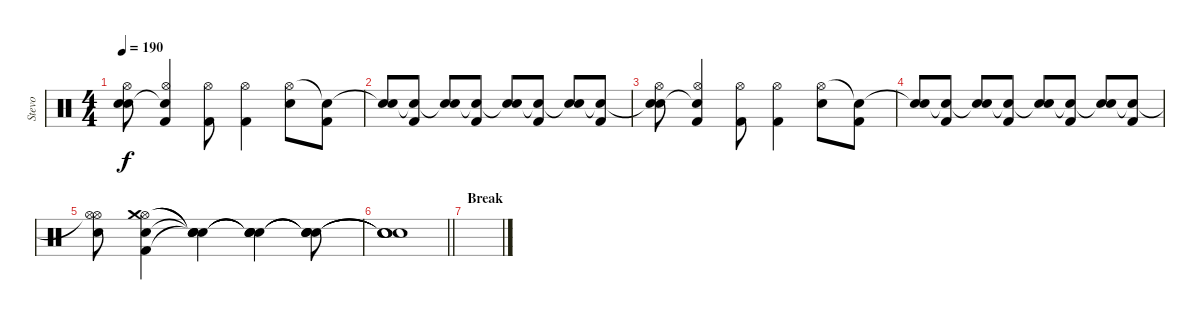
\track ("Stevo" "Stevo") {instrument percussion}
\staff {score}
\articulation defaults
\ts (4 4)
\tempo 190
\clef neutral
\ks c
("Snare (hit)"{t} "Hi-Hat (open)" "Electric Snare (hit)").8{dy f} ("Snare (hit)"{t} "Hi-Hat (open)" "Kick (hit) 2").4 ("Hi-Hat (open)" "Kick (hit) 2").8 ("Hi-Hat (open)" "Kick (hit) 2").4 ("Hi-Hat (open)" "Electric Snare (hit)").8 ("Snare (hit)"{t} "Kick (hit) 2").8 |
("Snare (hit)"{t} "Electric Snare (hit)").8 ("Snare (hit)"{t} "Kick (hit) 2").8 ("Snare (hit)"{t} "Electric Snare (hit)").8 ("Snare (hit)"{t} "Kick (hit) 2").8 ("Snare (hit)"{t} "Electric Snare (hit)").8 ("Snare (hit)"{t} "Kick (hit) 2").8 ("Snare (hit)"{t} "Electric Snare (hit)").8 ("Snare (hit)"{t} "Kick (hit) 2").8 |
("Snare (hit)"{t} "Hi-Hat (open)" "Electric Snare (hit)").8 ("Snare (hit)"{t} "Hi-Hat (open)" "Kick (hit) 2").4 ("Hi-Hat (open)" "Kick (hit) 2").8 ("Hi-Hat (open)" "Kick (hit) 2").4 ("Hi-Hat (open)" "Electric Snare (hit)").8 ("Snare (hit)"{t} "Kick (hit) 2").8 |
("Snare (hit)"{t} "Electric Snare (hit)").8 ("Snare (hit)"{t} "Kick (hit) 2").8 ("Snare (hit)"{t} "Electric Snare (hit)").8 ("Snare (hit)"{t} "Kick (hit) 2").8 ("Snare (hit)"{t} "Electric Snare (hit)").8 ("Snare (hit)"{t} "Kick (hit) 2").8 ("Snare (hit)"{t} "Electric Snare (hit)").8 ("Snare (hit)"{t} "Kick (hit) 2").8 |
("Hi-Hat (open)"{t} "Hi-Hat (open)" "Electric Snare (hit)").8 ("Hi-Hat (open)" "Crash medium (hit)" "Electric Snare (hit)" "Kick (hit) 2").4 ("Snare (hit)"{t} "Snare (hit)"{t} "Snare (hit)"{t} "Snare (hit)"{t}).4 ("Snare (hit)"{t} "Snare (hit)"{t} "Snare (hit)"{t} "Snare (hit)"{t}).4 ("Snare (hit)"{t} "Snare (hit)"{t} "Snare (hit)"{t} "Snare (hit)"{t}).8 |
\barLineRight lightlight
("Snare (hit)"{t} "Snare (hit)"{t} "Snare (hit)"{t} "Snare (hit)"{t}).1 |
\section ("" "Break")
